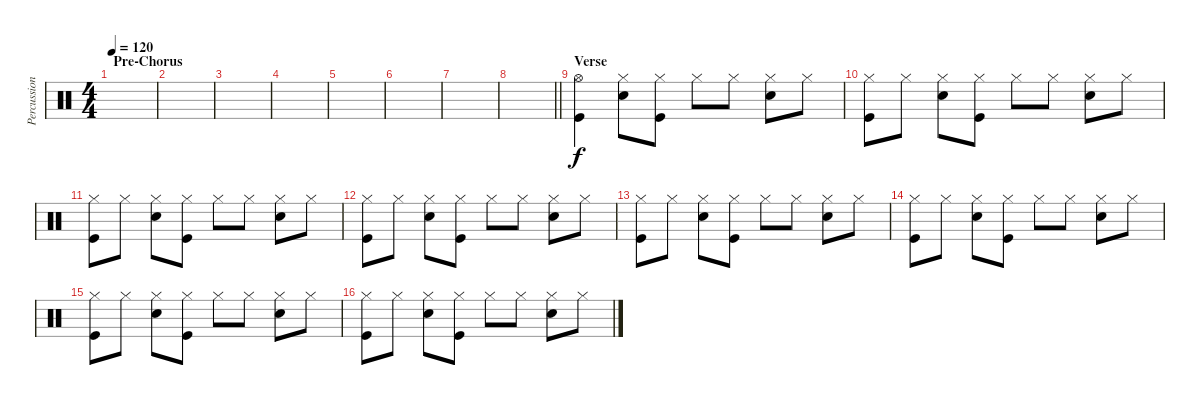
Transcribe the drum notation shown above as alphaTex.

\track ("Percussion" "Percussion") {instrument percussion}
\staff {score}
\articulation defaults
\ts (4 4)
\section ("" "Pre-Chorus")
\tempo 120
\clef neutral
\ks c
|
|
|
|
|
|
|
\barLineRight lightlight
|
\section ("" "Verse")
("Hi-Hat (open)" "Kick (hit)").4 ("Hi-Hat (closed)" "Snare (hit) 2").8 ("Hi-Hat (closed)" "Kick (hit)").8 "Hi-Hat (closed)".8 "Hi-Hat (closed)".8 ("Hi-Hat (closed)" "Snare (hit) 2").8 "Hi-Hat (closed)".8 |
("Hi-Hat (closed)" "Kick (hit)").8 "Hi-Hat (closed)".8 ("Hi-Hat (closed)" "Snare (hit) 2").8 ("Hi-Hat (closed)" "Kick (hit)").8 "Hi-Hat (closed)".8 "Hi-Hat (closed)".8 ("Hi-Hat (closed)" "Snare (hit) 2").8 "Hi-Hat (closed)".8 |
("Hi-Hat (closed)" "Kick (hit)").8 "Hi-Hat (closed)".8 ("Hi-Hat (closed)" "Snare (hit) 2").8 ("Hi-Hat (closed)" "Kick (hit)").8 "Hi-Hat (closed)".8 "Hi-Hat (closed)".8 ("Hi-Hat (closed)" "Snare (hit) 2").8 "Hi-Hat (closed)".8 |
("Hi-Hat (closed)" "Kick (hit)").8 "Hi-Hat (closed)".8 ("Hi-Hat (closed)" "Snare (hit) 2").8 ("Hi-Hat (closed)" "Kick (hit)").8 "Hi-Hat (closed)".8 "Hi-Hat (closed)".8 ("Hi-Hat (closed)" "Snare (hit) 2").8 "Hi-Hat (closed)".8 |
("Hi-Hat (closed)" "Kick (hit)").8 "Hi-Hat (closed)".8 ("Hi-Hat (closed)" "Snare (hit) 2").8 ("Hi-Hat (closed)" "Kick (hit)").8 "Hi-Hat (closed)".8 "Hi-Hat (closed)".8 ("Hi-Hat (closed)" "Snare (hit) 2").8 "Hi-Hat (closed)".8 |
("Hi-Hat (closed)" "Kick (hit)").8 "Hi-Hat (closed)".8 ("Hi-Hat (closed)" "Snare (hit) 2").8 ("Hi-Hat (closed)" "Kick (hit)").8 "Hi-Hat (closed)".8 "Hi-Hat (closed)".8 ("Hi-Hat (closed)" "Snare (hit) 2").8 "Hi-Hat (closed)".8 |
("Hi-Hat (closed)" "Kick (hit)").8 "Hi-Hat (closed)".8 ("Hi-Hat (closed)" "Snare (hit) 2").8 ("Hi-Hat (closed)" "Kick (hit)").8 "Hi-Hat (closed)".8 "Hi-Hat (closed)".8 ("Hi-Hat (closed)" "Snare (hit) 2").8 "Hi-Hat (closed)".8 |
("Hi-Hat (closed)" "Kick (hit)").8 "Hi-Hat (closed)".8 ("Hi-Hat (closed)" "Snare (hit) 2").8 ("Hi-Hat (closed)" "Kick (hit)").8 "Hi-Hat (closed)".8 "Hi-Hat (closed)".8 ("Hi-Hat (closed)" "Snare (hit) 2").8 "Hi-Hat (closed)".8
